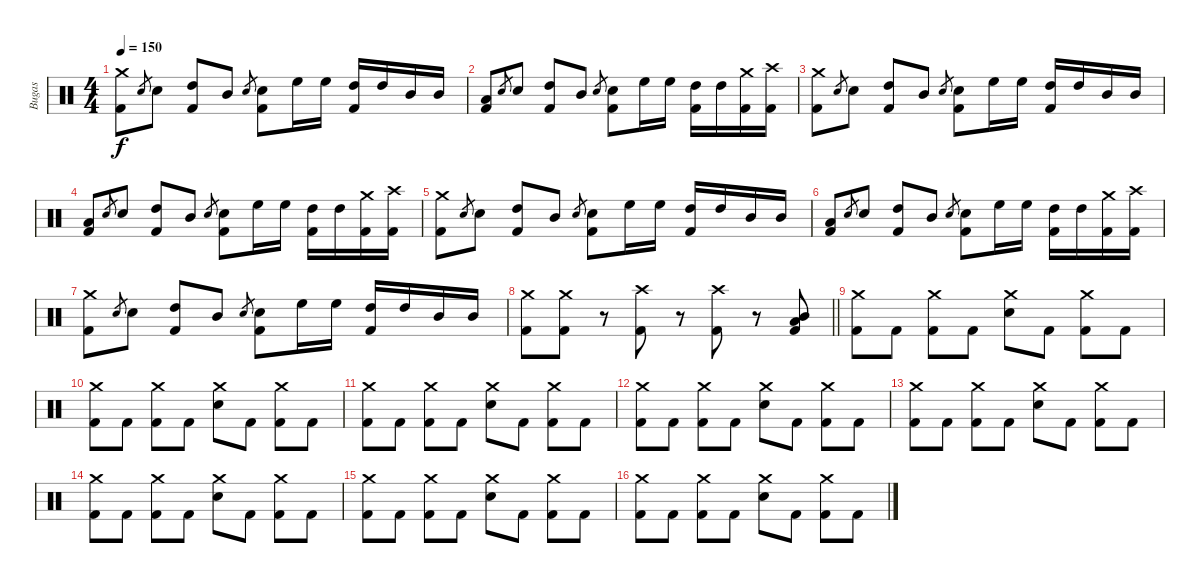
\track ("Bugas" "Bugas") {instrument percussion}
\staff {score}
\articulation defaults
\ts (4 4)
\tempo 150
\clef neutral
\ks c
("Crash medium (hit)" "Kick (hit) 2").8{dy f} "Electric Snare (hit)".8{gr} "Electric Snare (hit)".8 ("High Tom (hit)" "Kick (hit) 2").8 "Mid Tom (hit)".8 "Electric Snare (hit)".8{gr} ("Electric Snare (hit)" "Kick (hit) 2").8 "High Floor Tom (hit)".16 "High Floor Tom (hit)".16 ("High Tom (hit)" "Kick (hit) 2").16 "High Tom (hit)".16 "Mid Tom (hit)".16 "Mid Tom (hit)".16 |
("Low Tom (hit)" "Kick (hit) 2").8 "Electric Snare (hit)".8{gr} "Electric Snare (hit)".8 ("High Tom (hit)" "Kick (hit) 2").8 "Mid Tom (hit)".8 "Electric Snare (hit)".8{gr} ("Electric Snare (hit)" "Kick (hit) 2").8 "High Floor Tom (hit)".16 "High Floor Tom (hit)".16 ("High Tom (hit)" "Kick (hit) 2").16 "High Tom (hit)".16 ("Crash medium (hit)" "Kick (hit) 2").16 ("Crash high (hit)" "Kick (hit) 2").16 |
("Crash medium (hit)" "Kick (hit) 2").8 "Electric Snare (hit)".8{gr} "Electric Snare (hit)".8 ("High Tom (hit)" "Kick (hit) 2").8 "Mid Tom (hit)".8 "Electric Snare (hit)".8{gr} ("Electric Snare (hit)" "Kick (hit) 2").8 "High Floor Tom (hit)".16 "High Floor Tom (hit)".16 ("High Tom (hit)" "Kick (hit) 2").16 "High Tom (hit)".16 "Mid Tom (hit)".16 "Mid Tom (hit)".16 |
("Low Tom (hit)" "Kick (hit) 2").8 "Electric Snare (hit)".8{gr} "Electric Snare (hit)".8 ("High Tom (hit)" "Kick (hit) 2").8 "Mid Tom (hit)".8 "Electric Snare (hit)".8{gr} ("Electric Snare (hit)" "Kick (hit) 2").8 "High Floor Tom (hit)".16 "High Floor Tom (hit)".16 ("High Tom (hit)" "Kick (hit) 2").16 "High Tom (hit)".16 ("Crash medium (hit)" "Kick (hit) 2").16 ("Crash high (hit)" "Kick (hit) 2").16 |
("Crash medium (hit)" "Kick (hit) 2").8 "Electric Snare (hit)".8{gr} "Electric Snare (hit)".8 ("High Tom (hit)" "Kick (hit) 2").8 "Mid Tom (hit)".8 "Electric Snare (hit)".8{gr} ("Electric Snare (hit)" "Kick (hit) 2").8 "High Floor Tom (hit)".16 "High Floor Tom (hit)".16 ("High Tom (hit)" "Kick (hit) 2").16 "High Tom (hit)".16 "Mid Tom (hit)".16 "Mid Tom (hit)".16 |
("Low Tom (hit)" "Kick (hit) 2").8 "Electric Snare (hit)".8{gr} "Electric Snare (hit)".8 ("High Tom (hit)" "Kick (hit) 2").8 "Mid Tom (hit)".8 "Electric Snare (hit)".8{gr} ("Electric Snare (hit)" "Kick (hit) 2").8 "High Floor Tom (hit)".16 "High Floor Tom (hit)".16 ("High Tom (hit)" "Kick (hit) 2").16 "High Tom (hit)".16 ("Crash medium (hit)" "Kick (hit) 2").16 ("Crash high (hit)" "Kick (hit) 2").16 |
("Crash medium (hit)" "Kick (hit) 2").8 "Electric Snare (hit)".8{gr} "Electric Snare (hit)".8 ("High Tom (hit)" "Kick (hit) 2").8 "Mid Tom (hit)".8 "Electric Snare (hit)".8{gr} ("Electric Snare (hit)" "Kick (hit) 2").8 "High Floor Tom (hit)".16 "High Floor Tom (hit)".16 ("High Tom (hit)" "Kick (hit) 2").16 "High Tom (hit)".16 "Mid Tom (hit)".16 "Mid Tom (hit)".16 |
\barLineRight lightlight
("Crash medium (hit)" "Kick (hit) 2").8 ("Crash medium (hit)" "Kick (hit) 2").8 r.8 ("Crash high (hit)" "Kick (hit) 2").8 r.8 ("Crash high (hit)" "Kick (hit) 2").8 r.8 ("Mid Tom (hit)" "Low Tom (hit)" "Kick (hit) 2").8 |
("Crash medium (hit)" "Kick (hit) 2").8 "Kick (hit) 2".8 ("Crash medium (hit)" "Kick (hit) 2").8 "Kick (hit) 2".8 ("Crash medium (hit)" "Electric Snare (hit)").8 "Kick (hit) 2".8 ("Crash medium (hit)" "Kick (hit) 2").8 "Kick (hit) 2".8 |
("Crash medium (hit)" "Kick (hit) 2").8 "Kick (hit) 2".8 ("Crash medium (hit)" "Kick (hit) 2").8 "Kick (hit) 2".8 ("Crash medium (hit)" "Electric Snare (hit)").8 "Kick (hit) 2".8 ("Crash medium (hit)" "Kick (hit) 2").8 "Kick (hit) 2".8 |
("Crash medium (hit)" "Kick (hit) 2").8 "Kick (hit) 2".8 ("Crash medium (hit)" "Kick (hit) 2").8 "Kick (hit) 2".8 ("Crash medium (hit)" "Electric Snare (hit)").8 "Kick (hit) 2".8 ("Crash medium (hit)" "Kick (hit) 2").8 "Kick (hit) 2".8 |
("Crash medium (hit)" "Kick (hit) 2").8 "Kick (hit) 2".8 ("Crash medium (hit)" "Kick (hit) 2").8 "Kick (hit) 2".8 ("Crash medium (hit)" "Electric Snare (hit)").8 "Kick (hit) 2".8 ("Crash medium (hit)" "Kick (hit) 2").8 "Kick (hit) 2".8 |
("Crash medium (hit)" "Kick (hit) 2").8 "Kick (hit) 2".8 ("Crash medium (hit)" "Kick (hit) 2").8 "Kick (hit) 2".8 ("Crash medium (hit)" "Electric Snare (hit)").8 "Kick (hit) 2".8 ("Crash medium (hit)" "Kick (hit) 2").8 "Kick (hit) 2".8 |
("Crash medium (hit)" "Kick (hit) 2").8 "Kick (hit) 2".8 ("Crash medium (hit)" "Kick (hit) 2").8 "Kick (hit) 2".8 ("Crash medium (hit)" "Electric Snare (hit)").8 "Kick (hit) 2".8 ("Crash medium (hit)" "Kick (hit) 2").8 "Kick (hit) 2".8 |
("Crash medium (hit)" "Kick (hit) 2").8 "Kick (hit) 2".8 ("Crash medium (hit)" "Kick (hit) 2").8 "Kick (hit) 2".8 ("Crash medium (hit)" "Electric Snare (hit)").8 "Kick (hit) 2".8 ("Crash medium (hit)" "Kick (hit) 2").8 "Kick (hit) 2".8 |
("Crash medium (hit)" "Kick (hit) 2").8 "Kick (hit) 2".8 ("Crash medium (hit)" "Kick (hit) 2").8 "Kick (hit) 2".8 ("Crash medium (hit)" "Electric Snare (hit)").8 "Kick (hit) 2".8 ("Crash medium (hit)" "Kick (hit) 2").8 "Kick (hit) 2".8
